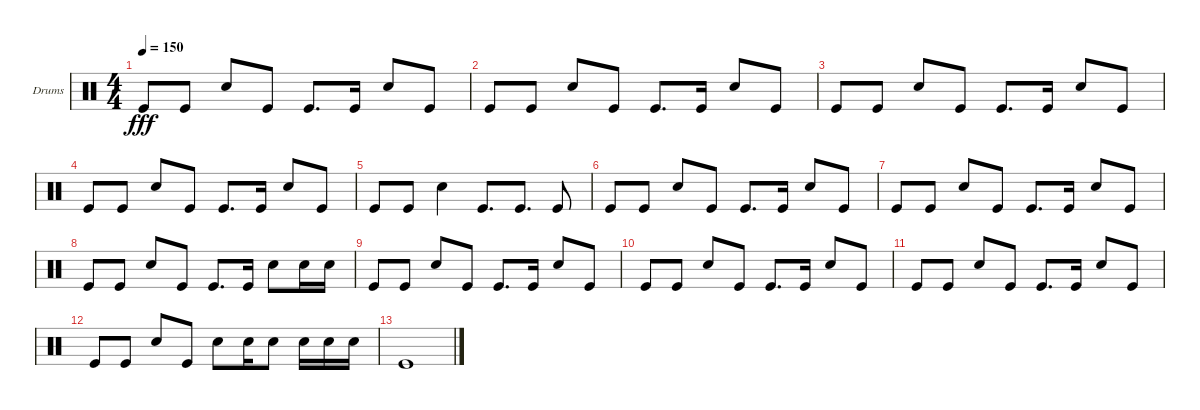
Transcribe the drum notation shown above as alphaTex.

\defaultSystemsLayout 4
\bracketExtendMode groupsimilarinstruments
\firstSystemTrackNameOrientation horizontal
\otherSystemsTrackNameOrientation horizontal
\track ("Helders" "Drums") {instrument percussion}
\staff {score}
\articulation defaults
\ts (4 4)
\tempo 150
\clef neutral
\ks c "Kick (hit)".8{dy fff} "Kick (hit)".8 "Snare (hit) 2".8 "Kick (hit)".8 "Kick (hit)".8{d} "Kick (hit)".16 "Snare (hit) 2".8 "Kick (hit)".8
|
"Kick (hit)".8 "Kick (hit)".8 "Snare (hit) 2".8 "Kick (hit)".8 "Kick (hit)".8{d} "Kick (hit)".16 "Snare (hit) 2".8 "Kick (hit)".8 |
"Kick (hit)".8 "Kick (hit)".8 "Snare (hit) 2".8 "Kick (hit)".8 "Kick (hit)".8{d} "Kick (hit)".16 "Snare (hit) 2".8 "Kick (hit)".8 |
"Kick (hit)".8 "Kick (hit)".8 "Snare (hit) 2".8 "Kick (hit)".8 "Kick (hit)".8{d} "Kick (hit)".16 "Snare (hit) 2".8 "Kick (hit)".8 |
"Kick (hit)".8 "Kick (hit)".8 "Snare (hit) 2".4 "Kick (hit)".8{d} "Kick (hit)".8{d} "Kick (hit)".8 |
"Kick (hit)".8 "Kick (hit)".8 "Snare (hit) 2".8 "Kick (hit)".8 "Kick (hit)".8{d} "Kick (hit)".16 "Snare (hit) 2".8 "Kick (hit)".8 |
"Kick (hit)".8 "Kick (hit)".8 "Snare (hit) 2".8 "Kick (hit)".8 "Kick (hit)".8{d} "Kick (hit)".16 "Snare (hit) 2".8 "Kick (hit)".8 |
"Kick (hit)".8 "Kick (hit)".8 "Snare (hit) 2".8 "Kick (hit)".8 "Kick (hit)".8{d} "Kick (hit)".16 "Snare (hit) 2".8 "Snare (hit) 2".16 "Snare (hit) 2".16 |
"Kick (hit)".8 "Kick (hit)".8 "Snare (hit) 2".8 "Kick (hit)".8 "Kick (hit)".8{d} "Kick (hit)".16 "Snare (hit) 2".8 "Kick (hit)".8 |
"Kick (hit)".8 "Kick (hit)".8 "Snare (hit) 2".8 "Kick (hit)".8 "Kick (hit)".8{d} "Kick (hit)".16 "Snare (hit) 2".8 "Kick (hit)".8 |
"Kick (hit)".8 "Kick (hit)".8 "Snare (hit) 2".8 "Kick (hit)".8 "Kick (hit)".8{d} "Kick (hit)".16 "Snare (hit) 2".8 "Kick (hit)".8 |
"Kick (hit)".8 "Kick (hit)".8 "Snare (hit) 2".8 "Kick (hit)".8 "Snare (hit) 2".8 "Snare (hit) 2".16 "Snare (hit) 2".8 "Snare (hit) 2".16 "Snare (hit) 2".16 "Snare (hit) 2".16 |
"Kick (hit)".1
